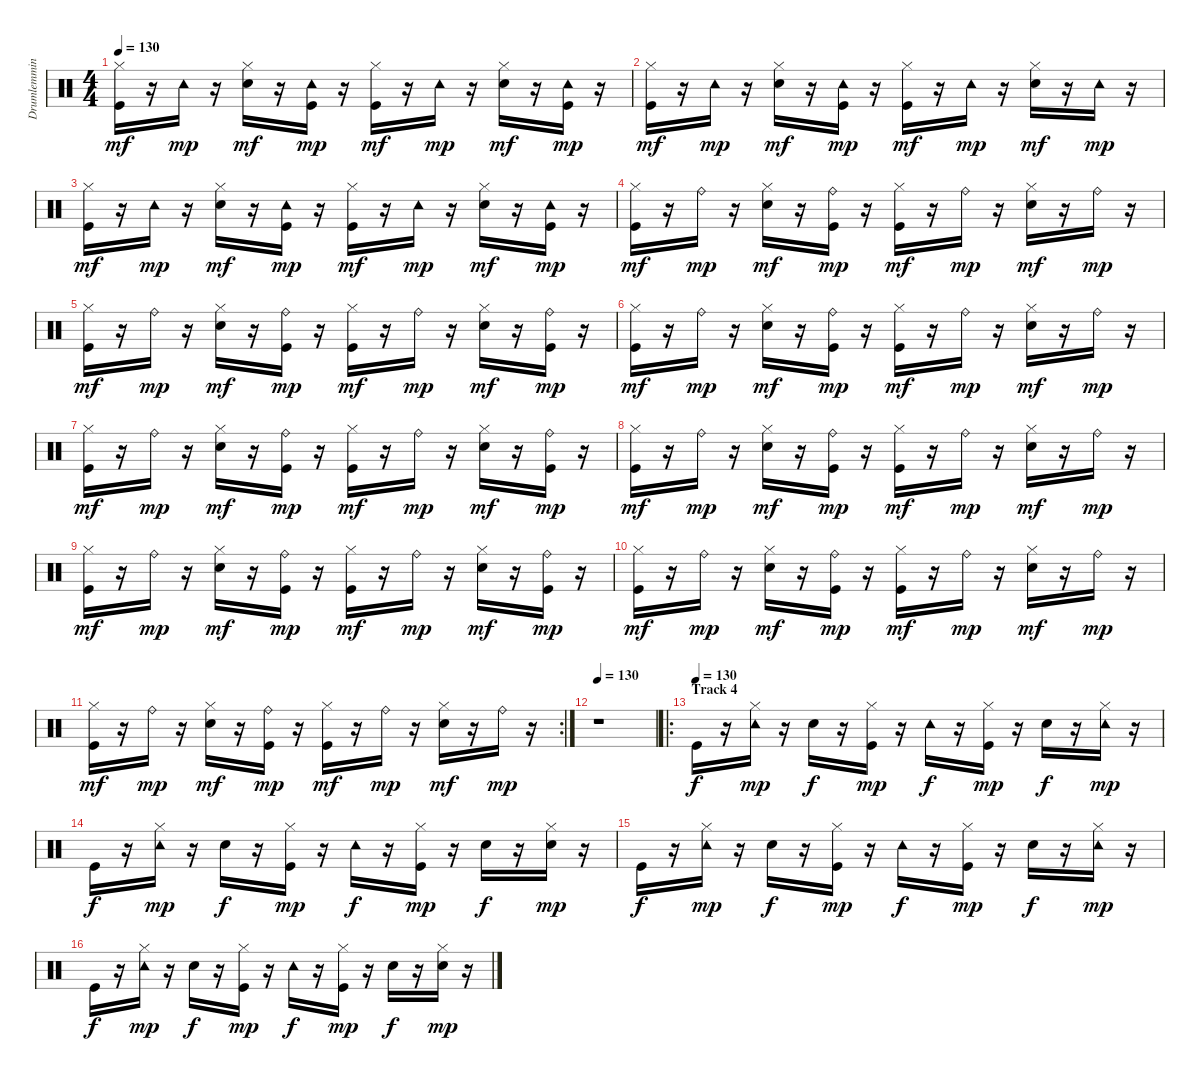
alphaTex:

\track ("Drumlemming" "Drumlemmin") {instrument percussion}
\staff {score}
\articulation defaults
\ts (4 4)
\tempo 130
\clef neutral
\ks c
("Kick (hit)" "Hi-Hat (closed)").16{dy mf} r.16 "Tambourine (hit)".16{dy mp} r.16 ("Snare (hit) 2" "Hi-Hat (closed)").16{dy mf} r.16 ("Tambourine (hit)" "Kick (hit)").16{dy mp} r.16 ("Kick (hit)" "Hi-Hat (closed)").16{dy mf} r.16 "Tambourine (hit)".16{dy mp} r.16 ("Snare (hit) 2" "Hi-Hat (closed)").16{dy mf} r.16 ("Tambourine (hit)" "Kick (hit)").16{dy mp} r.16 |
("Kick (hit)" "Hi-Hat (closed)").16{dy mf} r.16 "Tambourine (hit)".16{dy mp} r.16 ("Snare (hit) 2" "Hi-Hat (closed)").16{dy mf} r.16 ("Tambourine (hit)" "Kick (hit)").16{dy mp} r.16 ("Kick (hit)" "Hi-Hat (closed)").16{dy mf} r.16 "Tambourine (hit)".16{dy mp} r.16 ("Snare (hit) 2" "Hi-Hat (closed)").16{dy mf} r.16 "Tambourine (hit)".16{dy mp} r.16 |
("Kick (hit)" "Hi-Hat (closed)").16{dy mf} r.16 "Tambourine (hit)".16{dy mp} r.16 ("Snare (hit) 2" "Hi-Hat (closed)").16{dy mf} r.16 ("Tambourine (hit)" "Kick (hit)").16{dy mp} r.16 ("Kick (hit)" "Hi-Hat (closed)").16{dy mf} r.16 "Tambourine (hit)".16{dy mp} r.16 ("Snare (hit) 2" "Hi-Hat (closed)").16{dy mf} r.16 ("Tambourine (hit)" "Kick (hit)").16{dy mp} r.16 |
("Kick (hit)" "Hi-Hat (closed)").16{dy mf} r.16 "Ride (bell)".16{dy mp} r.16 ("Snare (hit) 2" "Hi-Hat (closed)").16{dy mf} r.16 ("Ride (bell)" "Kick (hit)").16{dy mp} r.16 ("Kick (hit)" "Hi-Hat (closed)").16{dy mf} r.16 "Ride (bell)".16{dy mp} r.16 ("Snare (hit) 2" "Hi-Hat (closed)").16{dy mf} r.16 "Ride (bell)".16{dy mp} r.16 |
("Kick (hit)" "Hi-Hat (closed)").16{dy mf} r.16 "Ride (bell)".16{dy mp} r.16 ("Snare (hit) 2" "Hi-Hat (closed)").16{dy mf} r.16 ("Ride (bell)" "Kick (hit)").16{dy mp} r.16 ("Kick (hit)" "Hi-Hat (closed)").16{dy mf} r.16 "Ride (bell)".16{dy mp} r.16 ("Snare (hit) 2" "Hi-Hat (closed)").16{dy mf} r.16 ("Ride (bell)" "Kick (hit)").16{dy mp} r.16 |
("Kick (hit)" "Hi-Hat (closed)").16{dy mf} r.16 "Ride (bell)".16{dy mp} r.16 ("Snare (hit) 2" "Hi-Hat (closed)").16{dy mf} r.16 ("Ride (bell)" "Kick (hit)").16{dy mp} r.16 ("Kick (hit)" "Hi-Hat (closed)").16{dy mf} r.16 "Ride (bell)".16{dy mp} r.16 ("Snare (hit) 2" "Hi-Hat (closed)").16{dy mf} r.16 "Ride (bell)".16{dy mp} r.16 |
("Kick (hit)" "Hi-Hat (closed)").16{dy mf} r.16 "Ride (bell)".16{dy mp} r.16 ("Snare (hit) 2" "Hi-Hat (closed)").16{dy mf} r.16 ("Ride (bell)" "Kick (hit)").16{dy mp} r.16 ("Kick (hit)" "Hi-Hat (closed)").16{dy mf} r.16 "Ride (bell)".16{dy mp} r.16 ("Snare (hit) 2" "Hi-Hat (closed)").16{dy mf} r.16 ("Ride (bell)" "Kick (hit)").16{dy mp} r.16 |
("Kick (hit)" "Hi-Hat (closed)").16{dy mf} r.16 "Ride (bell)".16{dy mp} r.16 ("Snare (hit) 2" "Hi-Hat (closed)").16{dy mf} r.16 ("Ride (bell)" "Kick (hit)").16{dy mp} r.16 ("Kick (hit)" "Hi-Hat (closed)").16{dy mf} r.16 "Ride (bell)".16{dy mp} r.16 ("Snare (hit) 2" "Hi-Hat (closed)").16{dy mf} r.16 "Ride (bell)".16{dy mp} r.16 |
("Kick (hit)" "Hi-Hat (closed)").16{dy mf} r.16 "Ride (bell)".16{dy mp} r.16 ("Snare (hit) 2" "Hi-Hat (closed)").16{dy mf} r.16 ("Ride (bell)" "Kick (hit)").16{dy mp} r.16 ("Kick (hit)" "Hi-Hat (closed)").16{dy mf} r.16 "Ride (bell)".16{dy mp} r.16 ("Snare (hit) 2" "Hi-Hat (closed)").16{dy mf} r.16 ("Ride (bell)" "Kick (hit)").16{dy mp} r.16 |
("Kick (hit)" "Hi-Hat (closed)").16{dy mf} r.16 "Ride (bell)".16{dy mp} r.16 ("Snare (hit) 2" "Hi-Hat (closed)").16{dy mf} r.16 ("Ride (bell)" "Kick (hit)").16{dy mp} r.16 ("Kick (hit)" "Hi-Hat (closed)").16{dy mf} r.16 "Ride (bell)".16{dy mp} r.16 ("Snare (hit) 2" "Hi-Hat (closed)").16{dy mf} r.16 "Ride (bell)".16{dy mp} r.16 |
\rc 2
("Kick (hit)" "Hi-Hat (closed)").16{dy mf} r.16 "Ride (bell)".16{dy mp} r.16 ("Snare (hit) 2" "Hi-Hat (closed)").16{dy mf} r.16 ("Ride (bell)" "Kick (hit)").16{dy mp} r.16 ("Kick (hit)" "Hi-Hat (closed)").16{dy mf} r.16 "Ride (bell)".16{dy mp} r.16 ("Snare (hit) 2" "Hi-Hat (closed)").16{dy mf} r.16 "Ride (bell)".16{dy mp} r.16 |
\tempo 130
r.1 |
\ro
\section ("" "Track 4")
\tempo (130)
"Kick (hit)".16{dy f} r.16 ("Tambourine (hit)" "Hi-Hat (closed)").16{dy mp} r.16 "Snare (hit) 2".16{dy f} r.16 ("Kick (hit)" "Hi-Hat (closed)").16{dy mp} r.16 "Tambourine (hit)".16{dy f} r.16 ("Kick (hit)" "Hi-Hat (closed)").16{dy mp} r.16 "Snare (hit) 2".16{dy f} r.16 ("Tambourine (hit)" "Hi-Hat (closed)").16{dy mp} r.16 |
"Kick (hit)".16{dy f} r.16 ("Tambourine (hit)" "Hi-Hat (closed)").16{dy mp} r.16 "Snare (hit) 2".16{dy f} r.16 ("Kick (hit)" "Hi-Hat (closed)").16{dy mp} r.16 "Tambourine (hit)".16{dy f} r.16 ("Kick (hit)" "Hi-Hat (closed)").16{dy mp} r.16 "Snare (hit) 2".16{dy f} r.16 ("Snare (hit) 2" "Hi-Hat (closed)").16{dy mp} r.16 |
"Kick (hit)".16{dy f} r.16 ("Tambourine (hit)" "Hi-Hat (closed)").16{dy mp} r.16 "Snare (hit) 2".16{dy f} r.16 ("Kick (hit)" "Hi-Hat (closed)").16{dy mp} r.16 "Tambourine (hit)".16{dy f} r.16 ("Kick (hit)" "Hi-Hat (closed)").16{dy mp} r.16 "Snare (hit) 2".16{dy f} r.16 ("Tambourine (hit)" "Hi-Hat (closed)").16{dy mp} r.16 |
"Kick (hit)".16{dy f} r.16 ("Tambourine (hit)" "Hi-Hat (closed)").16{dy mp} r.16 "Snare (hit) 2".16{dy f} r.16 ("Kick (hit)" "Hi-Hat (closed)").16{dy mp} r.16 "Tambourine (hit)".16{dy f} r.16 ("Kick (hit)" "Hi-Hat (closed)").16{dy mp} r.16 "Snare (hit) 2".16{dy f} r.16 ("Snare (hit) 2" "Hi-Hat (closed)").16{dy mp} r.16
